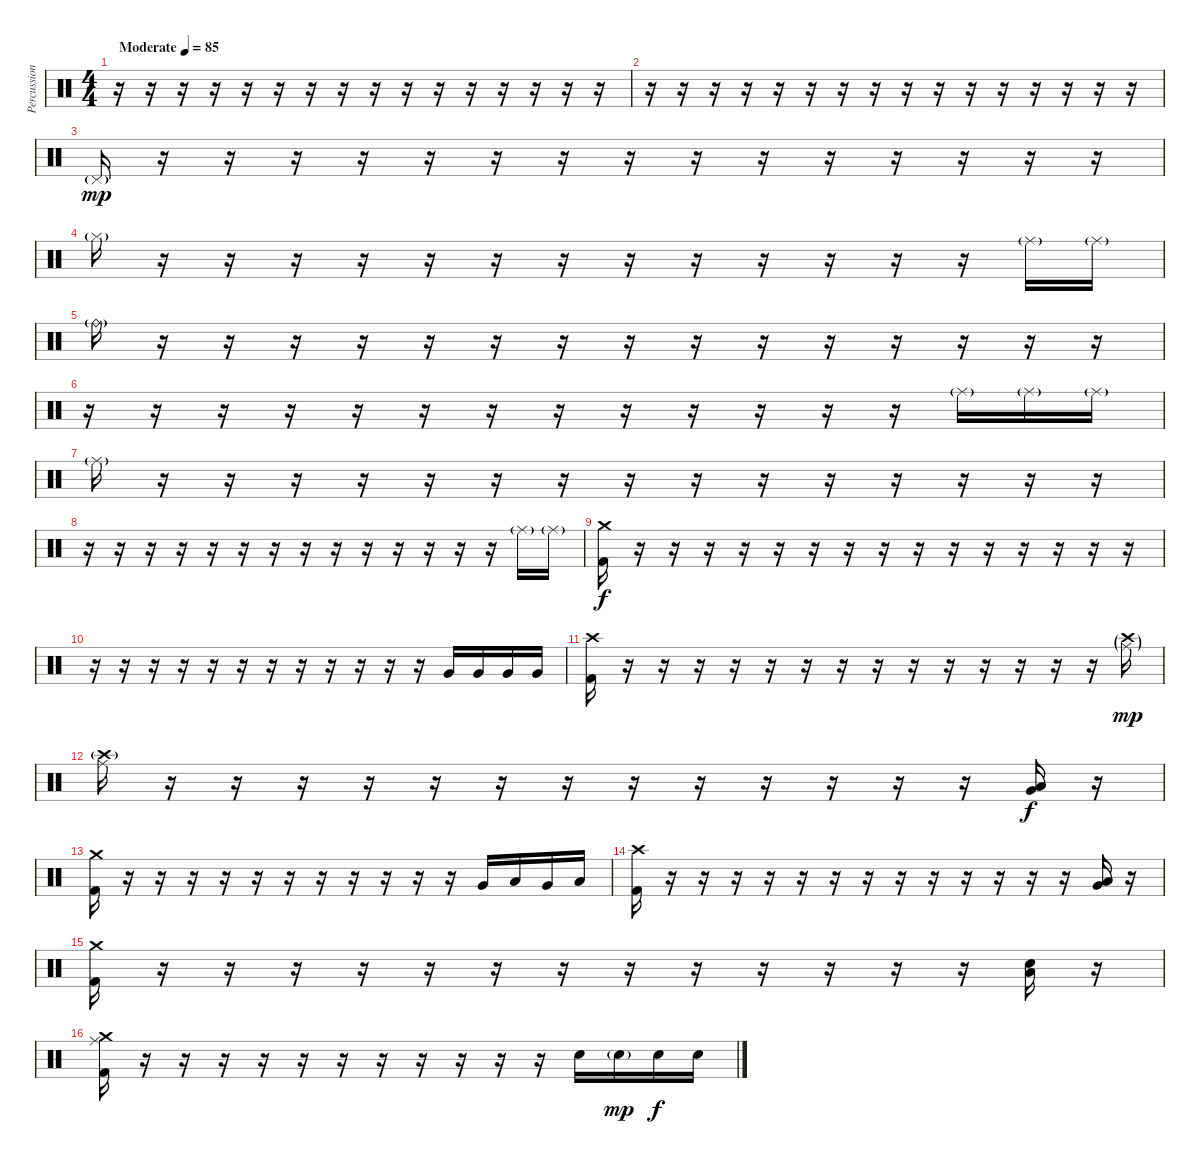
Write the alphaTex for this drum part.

\track ("Percussion" "Percussion") {instrument percussion}
\staff {score}
\articulation defaults
\ts (4 4)
\tempo (85 "Moderate")
\clef neutral
\ks c
r.16{dy mp} r.16 r.16 r.16 r.16 r.16 r.16 r.16 r.16 r.16 r.16 r.16 r.16 r.16 r.16 r.16 |
r.16 r.16 r.16 r.16 r.16 r.16 r.16 r.16 r.16 r.16 r.16 r.16 r.16 r.16 r.16 r.16 |
"Pedal Hi-Hat (hit)"{g}.16 r.16 r.16 r.16 r.16 r.16 r.16 r.16 r.16 r.16 r.16 r.16 r.16 r.16 r.16 r.16 |
"Hi-Hat (closed)"{g}.16 r.16 r.16 r.16 r.16 r.16 r.16 r.16 r.16 r.16 r.16 r.16 r.16 r.16 "Ride (middle)"{g}.16 "Ride (middle)"{g}.16 |
"Ride (bell)"{g}.16 r.16 r.16 r.16 r.16 r.16 r.16 r.16 r.16 r.16 r.16 r.16 r.16 r.16 r.16 r.16 |
r.16 r.16 r.16 r.16 r.16 r.16 r.16 r.16 r.16 r.16 r.16 r.16 r.16 "Ride (middle)"{g}.16 "Ride (middle)"{g}.16 "Ride (middle)"{g}.16 |
"Ride (middle)"{g}.16 r.16 r.16 r.16 r.16 r.16 r.16 r.16 r.16 r.16 r.16 r.16 r.16 r.16 r.16 r.16 |
r.16 r.16 r.16 r.16 r.16 r.16 r.16 r.16 r.16 r.16 r.16 r.16 r.16 r.16 "Ride (middle)"{g}.16 "Ride (middle)"{g}.16 |
("Crash medium (hit)" "Kick (hit) 2").16{dy f} r.16 r.16 r.16 r.16 r.16 r.16 r.16 r.16 r.16 r.16 r.16 r.16 r.16 r.16 r.16 |
r.16 r.16 r.16 r.16 r.16 r.16 r.16 r.16 r.16 r.16 r.16 r.16 "Very Low Tom (hit)".16 "Very Low Tom (hit)".16 "Very Low Tom (hit)".16 "Very Low Tom (hit)".16 |
("Crash high (hit)" "Kick (hit) 2").16 r.16 r.16 r.16 r.16 r.16 r.16 r.16 r.16 r.16 r.16 r.16 r.16 r.16 r.16 ("Ride (middle)"{g} "Crash high (hit)"{g}).16{dy mp} |
("Ride (middle)" "Crash high (hit)"{g}).16 r.16 r.16 r.16 r.16 r.16 r.16 r.16 r.16 r.16 r.16 r.16 r.16 r.16 ("Very Low Tom (hit)" "Low Floor Tom (hit)").16{dy f} r.16 |
("Crash medium (hit)" "Kick (hit) 2").16 r.16 r.16 r.16 r.16 r.16 r.16 r.16 r.16 r.16 r.16 r.16 "Very Low Tom (hit)".16 "Low Floor Tom (hit)".16 "Very Low Tom (hit)".16 "Low Floor Tom (hit)".16 |
("Crash high (hit)" "Kick (hit) 2").16 r.16 r.16 r.16 r.16 r.16 r.16 r.16 r.16 r.16 r.16 r.16 r.16 r.16 ("Low Floor Tom (hit)" "Very Low Tom (hit)").16 r.16 |
("Crash medium (hit)" "Kick (hit) 2").16 r.16 r.16 r.16 r.16 r.16 r.16 r.16 r.16 r.16 r.16 r.16 r.16 r.16 ("Low Floor Tom (hit)" "Electric Snare (hit)").16 r.16 |
("Crash medium (hit)" "Ride (middle)" "Kick (hit) 2").16 r.16 r.16 r.16 r.16 r.16 r.16 r.16 r.16 r.16 r.16 r.16 "Electric Snare (hit)".16 "Electric Snare (hit)"{g}.16{dy mp} "Electric Snare (hit)".16{dy f} "Electric Snare (hit)".16
